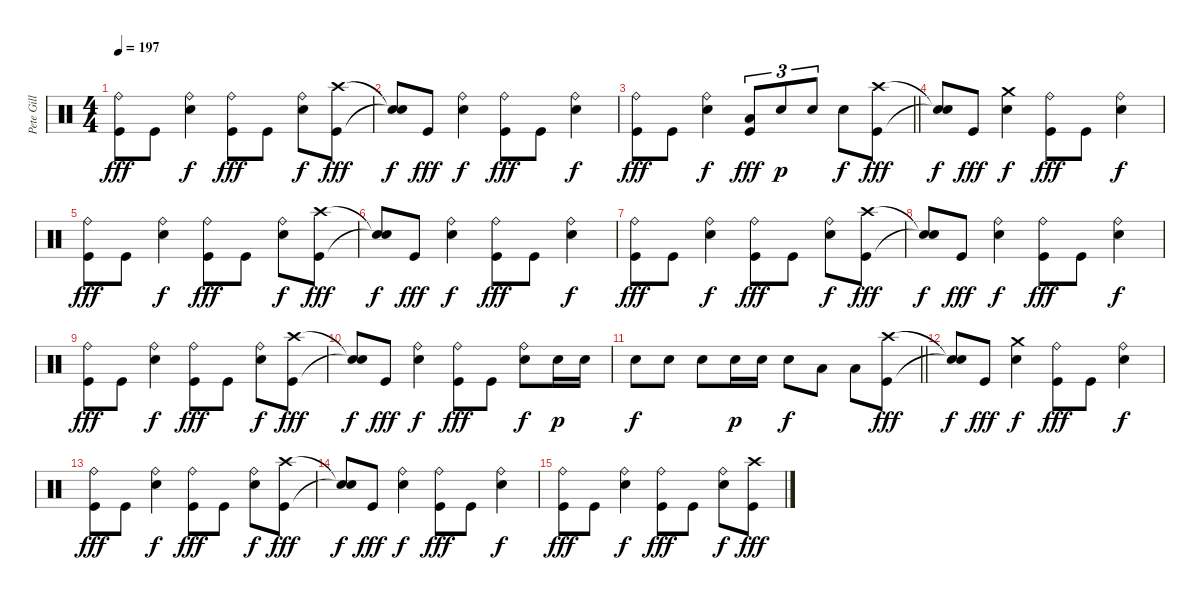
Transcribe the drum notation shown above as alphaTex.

\track ("Pete Gill" "Pete Gill") {instrument percussion}
\staff {score}
\articulation defaults
\ts (4 4)
\tempo 197
\clef neutral
\ks c
("Ride (bell)" "Kick (hit)").8{dy fff} "Kick (hit)".8 ("Ride (bell)" "Electric Snare (hit)").4{dy f} ("Ride (bell)" "Kick (hit)").8{dy fff} "Kick (hit)".8 ("Ride (bell)" "Electric Snare (hit)").8{dy f} ("Crash high (hit)" "Kick (hit)").8{dy fff} |
("Snare (hit)"{t} "Snare (hit)"{t}).8{dy f} "Kick (hit)".8{dy fff} ("Ride (bell)" "Electric Snare (hit)").4{dy f} ("Ride (bell)" "Kick (hit)").8{dy fff} "Kick (hit)".8 ("Ride (bell)" "Electric Snare (hit)").4{dy f} |
\barLineRight lightlight
("Ride (bell)" "Kick (hit)").8{dy fff} "Kick (hit)".8 ("Ride (bell)" "Electric Snare (hit)").4{dy f} ("Low Tom (hit)" "Kick (hit)").8{tu (3 2) dy fff} "Electric Snare (hit)".8{tu (3 2) dy p} "Electric Snare (hit)".8{tu (3 2)} "Electric Snare (hit)".8{dy f} ("Crash high (hit)" "Kick (hit)").8{dy fff} |
("Snare (hit)"{t} "Snare (hit)"{t}).8{dy f volume 11} "Kick (hit)".8{dy fff} ("Crash medium (hit)" "Electric Snare (hit)").4{dy f} ("Ride (bell)" "Kick (hit)").8{dy fff} "Kick (hit)".8 ("Ride (bell)" "Electric Snare (hit)").4{dy f} |
("Ride (bell)" "Kick (hit)").8{dy fff} "Kick (hit)".8 ("Ride (bell)" "Electric Snare (hit)").4{dy f} ("Ride (bell)" "Kick (hit)").8{dy fff} "Kick (hit)".8 ("Ride (bell)" "Electric Snare (hit)").8{dy f} ("Crash high (hit)" "Kick (hit)").8{dy fff} |
("Snare (hit)"{t} "Snare (hit)"{t}).8{dy f} "Kick (hit)".8{dy fff} ("Ride (bell)" "Electric Snare (hit)").4{dy f} ("Ride (bell)" "Kick (hit)").8{dy fff} "Kick (hit)".8 ("Ride (bell)" "Electric Snare (hit)").4{dy f} |
("Ride (bell)" "Kick (hit)").8{dy fff} "Kick (hit)".8 ("Ride (bell)" "Electric Snare (hit)").4{dy f} ("Ride (bell)" "Kick (hit)").8{dy fff} "Kick (hit)".8 ("Ride (bell)" "Electric Snare (hit)").8{dy f} ("Crash high (hit)" "Kick (hit)").8{dy fff} |
("Snare (hit)"{t} "Snare (hit)"{t}).8{dy f volume 6} "Kick (hit)".8{dy fff} ("Ride (bell)" "Electric Snare (hit)").4{dy f} ("Ride (bell)" "Kick (hit)").8{dy fff} "Kick (hit)".8 ("Ride (bell)" "Electric Snare (hit)").4{dy f} |
("Ride (bell)" "Kick (hit)").8{dy fff} "Kick (hit)".8 ("Ride (bell)" "Electric Snare (hit)").4{dy f} ("Ride (bell)" "Kick (hit)").8{dy fff} "Kick (hit)".8 ("Ride (bell)" "Electric Snare (hit)").8{dy f} ("Crash high (hit)" "Kick (hit)").8{dy fff} |
("Snare (hit)"{t} "Snare (hit)"{t}).8{dy f} "Kick (hit)".8{dy fff} ("Ride (bell)" "Electric Snare (hit)").4{dy f} ("Ride (bell)" "Kick (hit)").8{dy fff} "Kick (hit)".8 ("Ride (bell)" "Electric Snare (hit)").8{dy f} "Electric Snare (hit)".16{dy p} "Electric Snare (hit)".16 |
\barLineRight lightlight "Electric Snare (hit)".8{dy f} "Electric Snare (hit)".8 "Electric Snare (hit)".8 "Electric Snare (hit)".16{dy p} "Electric Snare (hit)".16 "Electric Snare (hit)".8{dy f} "Low Tom (hit)".8 "Low Tom (hit)".8
("Crash high (hit)" "Kick (hit)").8{dy fff} |
("Snare (hit)"{t} "Snare (hit)"{t}).8{dy f volume 5} "Kick (hit)".8{dy fff} ("Crash medium (hit)" "Electric Snare (hit)").4{dy f} ("Ride (bell)" "Kick (hit)").8{dy fff} "Kick (hit)".8 ("Ride (bell)" "Electric Snare (hit)").4{dy f} |
("Ride (bell)" "Kick (hit)").8{dy fff} "Kick (hit)".8 ("Ride (bell)" "Electric Snare (hit)").4{dy f} ("Ride (bell)" "Kick (hit)").8{dy fff} "Kick (hit)".8 ("Ride (bell)" "Electric Snare (hit)").8{dy f} ("Crash high (hit)" "Kick (hit)").8{dy fff} |
("Snare (hit)"{t} "Snare (hit)"{t}).8{dy f volume 0} "Kick (hit)".8{dy fff} ("Ride (bell)" "Electric Snare (hit)").4{dy f} ("Ride (bell)" "Kick (hit)").8{dy fff} "Kick (hit)".8 ("Ride (bell)" "Electric Snare (hit)").4{dy f} |
("Ride (bell)" "Kick (hit)").8{dy fff} "Kick (hit)".8 ("Ride (bell)" "Electric Snare (hit)").4{dy f} ("Ride (bell)" "Kick (hit)").8{dy fff} "Kick (hit)".8 ("Ride (bell)" "Electric Snare (hit)").8{dy f} ("Crash high (hit)" "Kick (hit)").8{dy fff}
